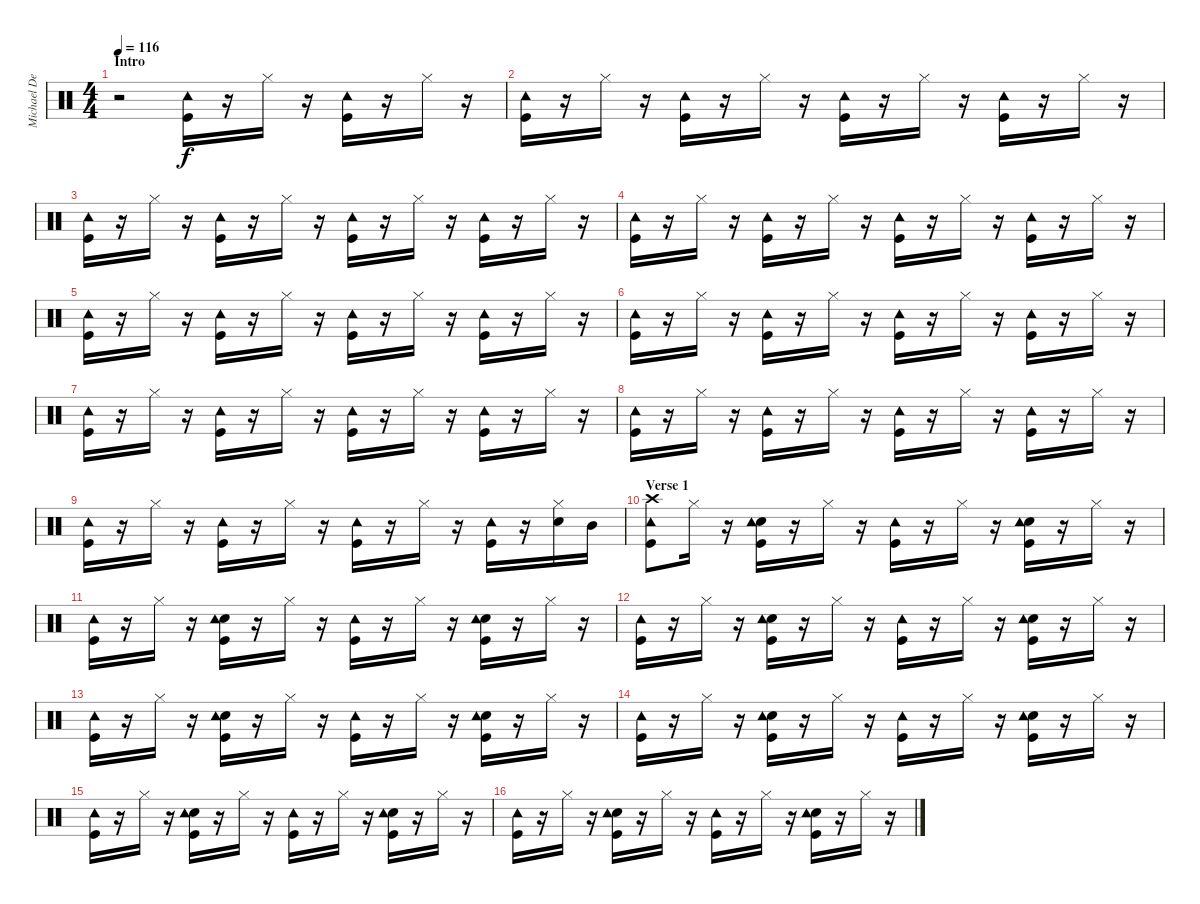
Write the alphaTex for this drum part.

\track ("Michael DeRosier" "Michael De") {instrument percussion}
\staff {score}
\articulation defaults
\ts (4 4)
\section ("" "Intro")
\tempo 116
\clef neutral
\ks c
r.2{dy f} ("Kick (hit)" "Tambourine (hit)").16 r.16 "Hi-Hat (closed)".16 r.16 ("Kick (hit)" "Tambourine (hit)").16 r.16 "Hi-Hat (closed)".16 r.16 |
("Kick (hit)" "Tambourine (hit)").16 r.16 "Hi-Hat (closed)".16 r.16 ("Kick (hit)" "Tambourine (hit)").16 r.16 "Hi-Hat (closed)".16 r.16 ("Kick (hit)" "Tambourine (hit)").16 r.16 "Hi-Hat (closed)".16 r.16 ("Kick (hit)" "Tambourine (hit)").16 r.16 "Hi-Hat (closed)".16 r.16 |
("Kick (hit)" "Tambourine (hit)").16 r.16 "Hi-Hat (closed)".16 r.16 ("Kick (hit)" "Tambourine (hit)").16 r.16 "Hi-Hat (closed)".16 r.16 ("Kick (hit)" "Tambourine (hit)").16 r.16 "Hi-Hat (closed)".16 r.16 ("Kick (hit)" "Tambourine (hit)").16 r.16 "Hi-Hat (closed)".16 r.16 |
("Kick (hit)" "Tambourine (hit)").16 r.16 "Hi-Hat (closed)".16 r.16 ("Kick (hit)" "Tambourine (hit)").16 r.16 "Hi-Hat (closed)".16 r.16 ("Kick (hit)" "Tambourine (hit)").16 r.16 "Hi-Hat (closed)".16 r.16 ("Kick (hit)" "Tambourine (hit)").16 r.16 "Hi-Hat (closed)".16 r.16 |
("Kick (hit)" "Tambourine (hit)").16 r.16 "Hi-Hat (closed)".16 r.16 ("Kick (hit)" "Tambourine (hit)").16 r.16 "Hi-Hat (closed)".16 r.16 ("Kick (hit)" "Tambourine (hit)").16 r.16 "Hi-Hat (closed)".16 r.16 ("Kick (hit)" "Tambourine (hit)").16 r.16 "Hi-Hat (closed)".16 r.16 |
("Kick (hit)" "Tambourine (hit)").16 r.16 "Hi-Hat (closed)".16 r.16 ("Kick (hit)" "Tambourine (hit)").16 r.16 "Hi-Hat (closed)".16 r.16 ("Kick (hit)" "Tambourine (hit)").16 r.16 "Hi-Hat (closed)".16 r.16 ("Kick (hit)" "Tambourine (hit)").16 r.16 "Hi-Hat (closed)".16 r.16 |
("Kick (hit)" "Tambourine (hit)").16 r.16 "Hi-Hat (closed)".16 r.16 ("Kick (hit)" "Tambourine (hit)").16 r.16 "Hi-Hat (closed)".16 r.16 ("Kick (hit)" "Tambourine (hit)").16 r.16 "Hi-Hat (closed)".16 r.16 ("Kick (hit)" "Tambourine (hit)").16 r.16 "Hi-Hat (closed)".16 r.16 |
("Kick (hit)" "Tambourine (hit)").16 r.16 "Hi-Hat (closed)".16 r.16 ("Kick (hit)" "Tambourine (hit)").16 r.16 "Hi-Hat (closed)".16 r.16 ("Kick (hit)" "Tambourine (hit)").16 r.16 "Hi-Hat (closed)".16 r.16 ("Kick (hit)" "Tambourine (hit)").16 r.16 "Hi-Hat (closed)".16 r.16 |
("Kick (hit)" "Tambourine (hit)").16 r.16 "Hi-Hat (closed)".16 r.16 ("Kick (hit)" "Tambourine (hit)").16 r.16 "Hi-Hat (closed)".16 r.16 ("Kick (hit)" "Tambourine (hit)").16 r.16 "Hi-Hat (closed)".16 r.16 ("Kick (hit)" "Tambourine (hit)").16 r.16 ("Electric Snare (hit)" "Hi-Hat (closed)").16 "Mid Tom (hit)".16 |
\section ("" "Verse 1")
("Kick (hit)" "Crash high (hit)" "Tambourine (hit)").8 "Hi-Hat (closed)".16 r.16 ("Kick (hit)" "Electric Snare (hit)" "Tambourine (hit)").16 r.16 "Hi-Hat (closed)".16 r.16 ("Kick (hit)" "Tambourine (hit)").16 r.16 "Hi-Hat (closed)".16 r.16 ("Kick (hit)" "Electric Snare (hit)" "Tambourine (hit)").16 r.16 "Hi-Hat (closed)".16 r.16 |
("Kick (hit)" "Tambourine (hit)").16 r.16 "Hi-Hat (closed)".16 r.16 ("Kick (hit)" "Electric Snare (hit)" "Tambourine (hit)").16 r.16 "Hi-Hat (closed)".16 r.16 ("Kick (hit)" "Tambourine (hit)").16 r.16 "Hi-Hat (closed)".16 r.16 ("Kick (hit)" "Electric Snare (hit)" "Tambourine (hit)").16 r.16 "Hi-Hat (closed)".16 r.16 |
("Kick (hit)" "Tambourine (hit)").16 r.16 "Hi-Hat (closed)".16 r.16 ("Kick (hit)" "Electric Snare (hit)" "Tambourine (hit)").16 r.16 "Hi-Hat (closed)".16 r.16 ("Kick (hit)" "Tambourine (hit)").16 r.16 "Hi-Hat (closed)".16 r.16 ("Kick (hit)" "Electric Snare (hit)" "Tambourine (hit)").16 r.16 "Hi-Hat (closed)".16 r.16 |
("Kick (hit)" "Tambourine (hit)").16 r.16 "Hi-Hat (closed)".16 r.16 ("Kick (hit)" "Electric Snare (hit)" "Tambourine (hit)").16 r.16 "Hi-Hat (closed)".16 r.16 ("Kick (hit)" "Tambourine (hit)").16 r.16 "Hi-Hat (closed)".16 r.16 ("Kick (hit)" "Electric Snare (hit)" "Tambourine (hit)").16 r.16 "Hi-Hat (closed)".16 r.16 |
("Kick (hit)" "Tambourine (hit)").16 r.16 "Hi-Hat (closed)".16 r.16 ("Kick (hit)" "Electric Snare (hit)" "Tambourine (hit)").16 r.16 "Hi-Hat (closed)".16 r.16 ("Kick (hit)" "Tambourine (hit)").16 r.16 "Hi-Hat (closed)".16 r.16 ("Kick (hit)" "Electric Snare (hit)" "Tambourine (hit)").16 r.16 "Hi-Hat (closed)".16 r.16 |
("Kick (hit)" "Tambourine (hit)").16 r.16 "Hi-Hat (closed)".16 r.16 ("Kick (hit)" "Electric Snare (hit)" "Tambourine (hit)").16 r.16 "Hi-Hat (closed)".16 r.16 ("Kick (hit)" "Tambourine (hit)").16 r.16 "Hi-Hat (closed)".16 r.16 ("Kick (hit)" "Electric Snare (hit)" "Tambourine (hit)").16 r.16 "Hi-Hat (closed)".16 r.16 |
("Kick (hit)" "Tambourine (hit)").16 r.16 "Hi-Hat (closed)".16 r.16 ("Kick (hit)" "Electric Snare (hit)" "Tambourine (hit)").16 r.16 "Hi-Hat (closed)".16 r.16 ("Kick (hit)" "Tambourine (hit)").16 r.16 "Hi-Hat (closed)".16 r.16 ("Kick (hit)" "Electric Snare (hit)" "Tambourine (hit)").16 r.16 "Hi-Hat (closed)".16 r.16
